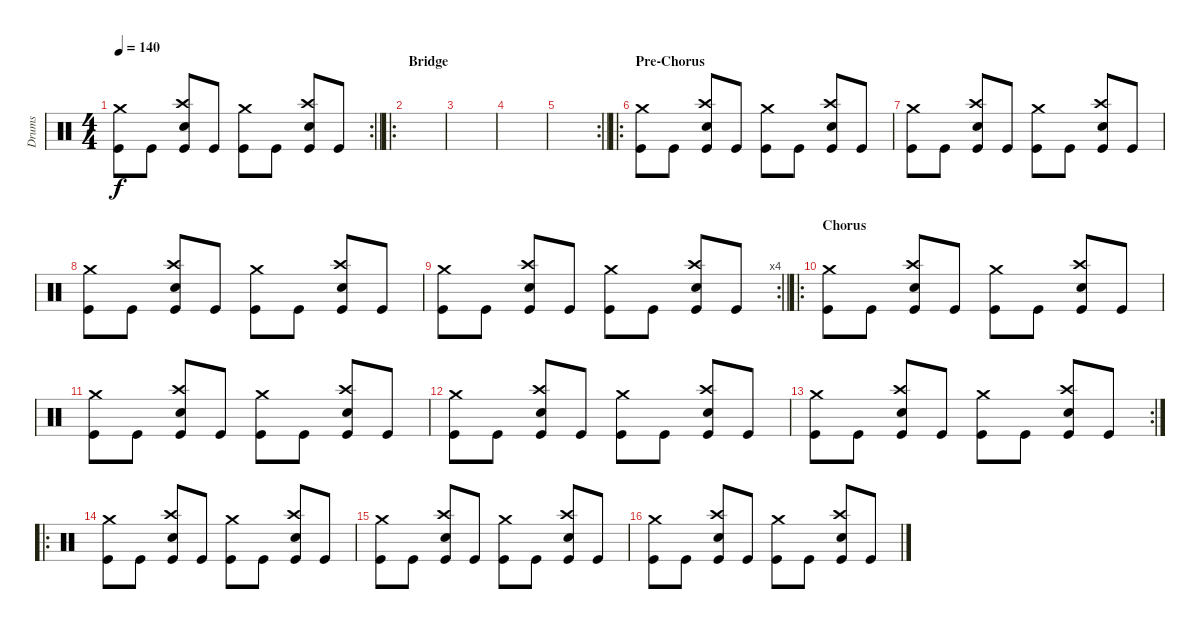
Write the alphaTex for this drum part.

\track ("Drums" "Drums") {instrument percussion}
\staff {score}
\articulation defaults
\rc 2
\ts (4 4)
\tempo 140
\clef neutral
\barLineRight lightlight
\ks c
("Crash medium (hit)" "Kick (hit)").8{dy f} "Kick (hit)".8 ("Crash high (hit)" "Snare (hit) 2" "Kick (hit)").8 "Kick (hit)".8 ("Crash medium (hit)" "Kick (hit)").8 "Kick (hit)".8 ("Crash high (hit)" "Snare (hit) 2" "Kick (hit)").8 "Kick (hit)".8 |
\ro
\section ("" "Bridge")
|
|
|
\rc 2
\barLineRight lightlight
|
\ro
\section ("" "Pre-Chorus")
("Crash medium (hit)" "Kick (hit)").8 "Kick (hit)".8 ("Crash high (hit)" "Snare (hit) 2" "Kick (hit)").8 "Kick (hit)".8 ("Crash medium (hit)" "Kick (hit)").8 "Kick (hit)".8 ("Crash high (hit)" "Snare (hit) 2" "Kick (hit)").8 "Kick (hit)".8 |
("Crash medium (hit)" "Kick (hit)").8 "Kick (hit)".8 ("Crash high (hit)" "Snare (hit) 2" "Kick (hit)").8 "Kick (hit)".8 ("Crash medium (hit)" "Kick (hit)").8 "Kick (hit)".8 ("Crash high (hit)" "Snare (hit) 2" "Kick (hit)").8 "Kick (hit)".8 |
("Crash medium (hit)" "Kick (hit)").8 "Kick (hit)".8 ("Crash high (hit)" "Snare (hit) 2" "Kick (hit)").8 "Kick (hit)".8 ("Crash medium (hit)" "Kick (hit)").8 "Kick (hit)".8 ("Crash high (hit)" "Snare (hit) 2" "Kick (hit)").8 "Kick (hit)".8 |
\rc 4
\barLineRight lightlight
("Crash medium (hit)" "Kick (hit)").8 "Kick (hit)".8 ("Crash high (hit)" "Snare (hit) 2" "Kick (hit)").8 "Kick (hit)".8 ("Crash medium (hit)" "Kick (hit)").8 "Kick (hit)".8 ("Crash high (hit)" "Snare (hit) 2" "Kick (hit)").8 "Kick (hit)".8 |
\ro
\section ("" "Chorus")
("Crash medium (hit)" "Kick (hit)").8 "Kick (hit)".8 ("Crash high (hit)" "Snare (hit) 2" "Kick (hit)").8 "Kick (hit)".8 ("Crash medium (hit)" "Kick (hit)").8 "Kick (hit)".8 ("Crash high (hit)" "Snare (hit) 2" "Kick (hit)").8 "Kick (hit)".8 |
("Crash medium (hit)" "Kick (hit)").8 "Kick (hit)".8 ("Crash high (hit)" "Snare (hit) 2" "Kick (hit)").8 "Kick (hit)".8 ("Crash medium (hit)" "Kick (hit)").8 "Kick (hit)".8 ("Crash high (hit)" "Snare (hit) 2" "Kick (hit)").8 "Kick (hit)".8 |
("Crash medium (hit)" "Kick (hit)").8 "Kick (hit)".8 ("Crash high (hit)" "Snare (hit) 2" "Kick (hit)").8 "Kick (hit)".8 ("Crash medium (hit)" "Kick (hit)").8 "Kick (hit)".8 ("Crash high (hit)" "Snare (hit) 2" "Kick (hit)").8 "Kick (hit)".8 |
\rc 2
("Crash medium (hit)" "Kick (hit)").8 "Kick (hit)".8 ("Crash high (hit)" "Snare (hit) 2" "Kick (hit)").8 "Kick (hit)".8 ("Crash medium (hit)" "Kick (hit)").8 "Kick (hit)".8 ("Crash high (hit)" "Snare (hit) 2" "Kick (hit)").8 "Kick (hit)".8 |
\ro
("Crash medium (hit)" "Kick (hit)").8 "Kick (hit)".8 ("Crash high (hit)" "Snare (hit) 2" "Kick (hit)").8 "Kick (hit)".8 ("Crash medium (hit)" "Kick (hit)").8 "Kick (hit)".8 ("Crash high (hit)" "Snare (hit) 2" "Kick (hit)").8 "Kick (hit)".8 |
("Crash medium (hit)" "Kick (hit)").8 "Kick (hit)".8 ("Crash high (hit)" "Snare (hit) 2" "Kick (hit)").8 "Kick (hit)".8 ("Crash medium (hit)" "Kick (hit)").8 "Kick (hit)".8 ("Crash high (hit)" "Snare (hit) 2" "Kick (hit)").8 "Kick (hit)".8 |
("Crash medium (hit)" "Kick (hit)").8 "Kick (hit)".8 ("Crash high (hit)" "Snare (hit) 2" "Kick (hit)").8 "Kick (hit)".8 ("Crash medium (hit)" "Kick (hit)").8 "Kick (hit)".8 ("Crash high (hit)" "Snare (hit) 2" "Kick (hit)").8 "Kick (hit)".8
